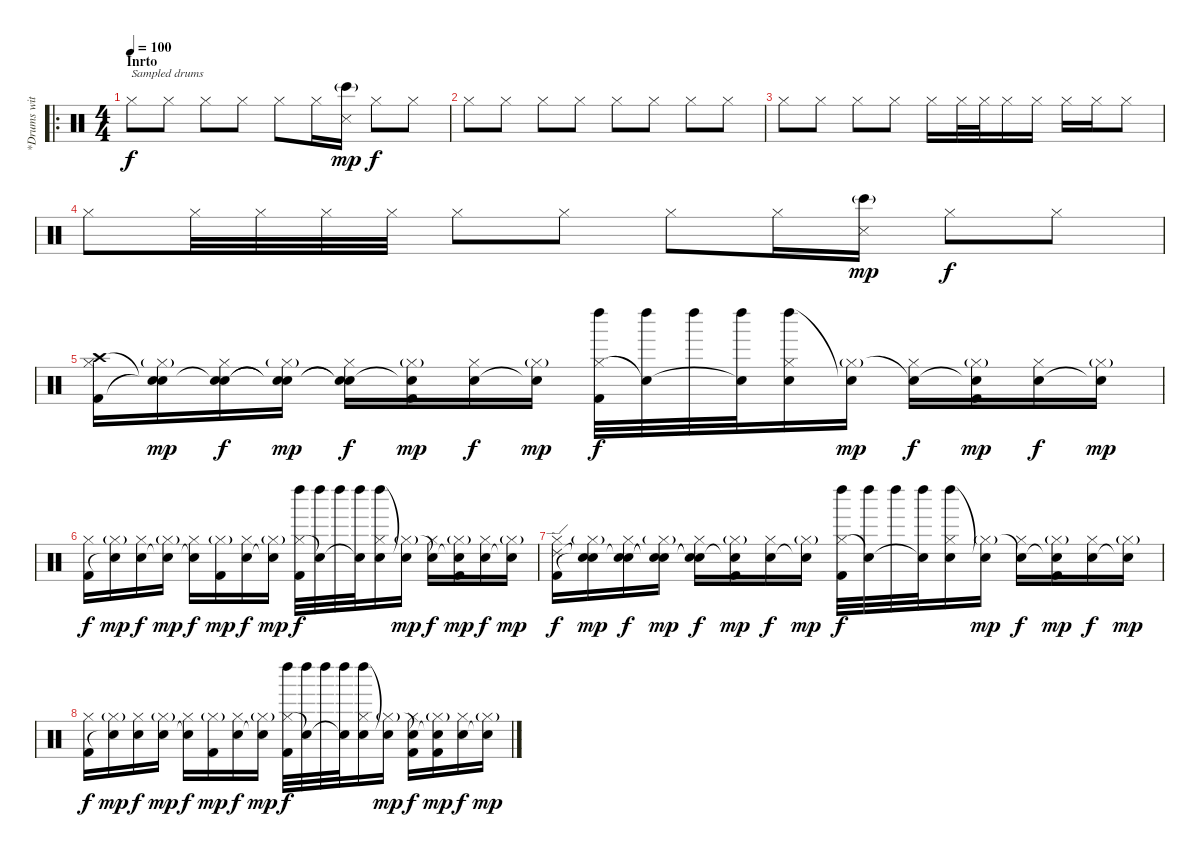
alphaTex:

\track ("*Drums with sampled drums (Rob and Joe)" "*Drums wit") {instrument percussion}
\staff {score}
\articulation defaults
\ro
\ts (4 4)
\section ("" "Inrto")
\tempo 100
\clef neutral
\ks c "Hi-Hat (closed)".8{txt "Sampled drums" dy f} "Hi-Hat (closed)".8 "Hi-Hat (closed)".8 "Hi-Hat (closed)".8 "Hi-Hat (closed)".8 "Hi-Hat (closed)".16
("Snare (side stick) 3" "Bongo High (hit)"{g}).16{dy mp} "Hi-Hat (closed)".8{dy f} "Hi-Hat (closed)".8 |
"Hi-Hat (closed)".8 "Hi-Hat (closed)".8 "Hi-Hat (closed)".8 "Hi-Hat (closed)".8 "Hi-Hat (closed)".8 "Hi-Hat (closed)".8 "Hi-Hat (closed)".8 "Hi-Hat (closed)".8 |
"Hi-Hat (closed)".8 "Hi-Hat (closed)".8 "Hi-Hat (closed)".8 "Hi-Hat (closed)".8 "Hi-Hat (closed)".16 "Hi-Hat (closed)".32 "Hi-Hat (closed)".32 "Hi-Hat (closed)".16 "Hi-Hat (closed)".16 "Hi-Hat (closed)".16 "Hi-Hat (closed)".16 "Hi-Hat (closed)".8 |
"Hi-Hat (closed)".8 "Hi-Hat (closed)".32 "Hi-Hat (closed)".32 "Hi-Hat (closed)".32 "Hi-Hat (closed)".32 "Hi-Hat (closed)".8 "Hi-Hat (closed)".8 "Hi-Hat (closed)".8 "Hi-Hat (closed)".16 ("Snare (side stick) 3" "Bongo High (hit)"{g}).16{dy mp} "Hi-Hat (closed)".8{dy f} "Hi-Hat (closed)".8 |
("Crash high (hit)" "Hi-Hat (closed)" "Kick (hit) 2").16 ("Snare (hit)"{t} "Hi-Hat (closed)"{g} "Snare (hit)"{t}).16{dy mp} ("Snare (hit)"{t} "Hi-Hat (closed)" "Electric Snare (hit)").16{dy f} ("Snare (hit)"{t} "Hi-Hat (closed)"{g} "Snare (hit)"{t}).16{dy mp} ("Snare (hit)"{t} "Hi-Hat (closed)" "Snare (hit)"{t}).16{dy f} ("Snare (hit)"{t} "Hi-Hat (closed)"{g} "Kick (hit) 2").16{dy mp} ("Hi-Hat (closed)" "Electric Snare (hit)").16{dy f} ("Hi-Hat (closed)"{g} "Snare (hit)"{t}).16{dy mp} ("Left Maraca (hit)" "Hi-Hat (closed)" "Kick (hit) 2").32{dy f} ("Left Maraca (hit)" "Snare (hit)"{t}).32 "Left Maraca (hit)".32 ("Left Maraca (hit)" "Snare (hit)"{t}).32 ("Left Maraca (hit)" "Hi-Hat (closed)" "Electric Snare (hit)").16 ("Snare (hit)"{t} "Hi-Hat (closed)"{g}).16{dy mp} ("Hi-Hat (closed)" "Snare (hit)"{t}).16{dy f} ("Hi-Hat (closed)"{g} "Snare (hit)"{t} "Kick (hit) 2").16{dy mp} ("Hi-Hat (closed)" "Electric Snare (hit)").16{dy f} ("Hi-Hat (closed)"{g} "Snare (hit)"{t}).16{dy mp} |
("Hi-Hat (closed)" "Kick (hit) 2").16{dy f} ("Hi-Hat (closed)"{g} "Snare (hit)"{t}).16{dy mp} ("Hi-Hat (closed)" "Electric Snare (hit)").16{dy f} ("Hi-Hat (closed)"{g} "Snare (hit)"{t}).16{dy mp} ("Hi-Hat (closed)" "Snare (hit)"{t}).16{dy f} ("Hi-Hat (closed)"{g} "Kick (hit) 2").16{dy mp} ("Hi-Hat (closed)" "Electric Snare (hit)").16{dy f} ("Hi-Hat (closed)"{g} "Snare (hit)"{t}).16{dy mp} ("Left Maraca (hit)" "Hi-Hat (closed)" "Kick (hit) 2").32{dy f} ("Left Maraca (hit)" "Snare (hit)"{t}).32 "Left Maraca (hit)".32 ("Left Maraca (hit)" "Snare (hit)"{t}).32 ("Left Maraca (hit)" "Hi-Hat (closed)" "Electric Snare (hit)").16 ("Snare (hit)"{t} "Hi-Hat (closed)"{g}).16{dy mp} ("Hi-Hat (closed)" "Snare (hit)"{t}).16{dy f} ("Hi-Hat (closed)"{g} "Snare (hit)"{t} "Kick (hit) 2").16{dy mp} ("Hi-Hat (closed)" "Electric Snare (hit)").16{dy f} ("Hi-Hat (closed)"{g} "Snare (hit)"{t}).16{dy mp} |
("Ride (edge) 2" "Hi-Hat (closed)" "Kick (hit) 2").16{dy f} ("Snare (hit)"{t} "Hi-Hat (closed)"{g} "Snare (hit)"{t}).16{dy mp} ("Snare (hit)"{t} "Hi-Hat (closed)" "Electric Snare (hit)").16{dy f} ("Snare (hit)"{t} "Hi-Hat (closed)"{g} "Snare (hit)"{t}).16{dy mp} ("Snare (hit)"{t} "Hi-Hat (closed)" "Snare (hit)"{t}).16{dy f} ("Snare (hit)"{t} "Hi-Hat (closed)"{g} "Kick (hit) 2").16{dy mp} ("Hi-Hat (closed)" "Electric Snare (hit)").16{dy f} ("Hi-Hat (closed)"{g} "Snare (hit)"{t}).16{dy mp} ("Left Maraca (hit)" "Hi-Hat (closed)" "Kick (hit) 2").32{dy f} ("Left Maraca (hit)" "Snare (hit)"{t}).32 "Left Maraca (hit)".32 ("Left Maraca (hit)" "Snare (hit)"{t}).32 ("Left Maraca (hit)" "Hi-Hat (closed)" "Electric Snare (hit)").16 ("Snare (hit)"{t} "Hi-Hat (closed)"{g}).16{dy mp} ("Hi-Hat (closed)" "Snare (hit)"{t}).16{dy f} ("Hi-Hat (closed)"{g} "Snare (hit)"{t} "Kick (hit) 2").16{dy mp} ("Hi-Hat (closed)" "Electric Snare (hit)").16{dy f} ("Hi-Hat (closed)"{g} "Snare (hit)"{t}).16{dy mp} |
("Hi-Hat (closed)" "Kick (hit) 2").16{dy f} ("Hi-Hat (closed)"{g} "Snare (hit)"{t}).16{dy mp} ("Hi-Hat (closed)" "Electric Snare (hit)").16{dy f} ("Hi-Hat (closed)"{g} "Electric Snare (hit)").16{dy mp} ("Hi-Hat (closed)" "Snare (hit)"{t}).16{dy f} ("Hi-Hat (closed)"{g} "Kick (hit) 2").16{dy mp} ("Hi-Hat (closed)" "Electric Snare (hit)").16{dy f} ("Hi-Hat (closed)"{g} "Snare (hit)"{t}).16{dy mp} ("Left Maraca (hit)" "Hi-Hat (closed)" "Kick (hit) 2").32{dy f} ("Left Maraca (hit)" "Snare (hit)"{t}).32 "Left Maraca (hit)".32 ("Left Maraca (hit)" "Snare (hit)"{t}).32 ("Left Maraca (hit)" "Hi-Hat (closed)" "Electric Snare (hit)").16 ("Snare (hit)"{t} "Hi-Hat (closed)"{g}).16{dy mp} ("Hi-Hat (closed)" "Snare (hit)"{t} "Kick (hit) 2").16{dy f} ("Hi-Hat (closed)"{g} "Snare (hit)"{t} "Kick (hit) 2").16{dy mp} ("Hi-Hat (closed)" "Electric Snare (hit)").16{dy f} ("Hi-Hat (closed)"{g} "Snare (hit)"{t}).16{dy mp}
